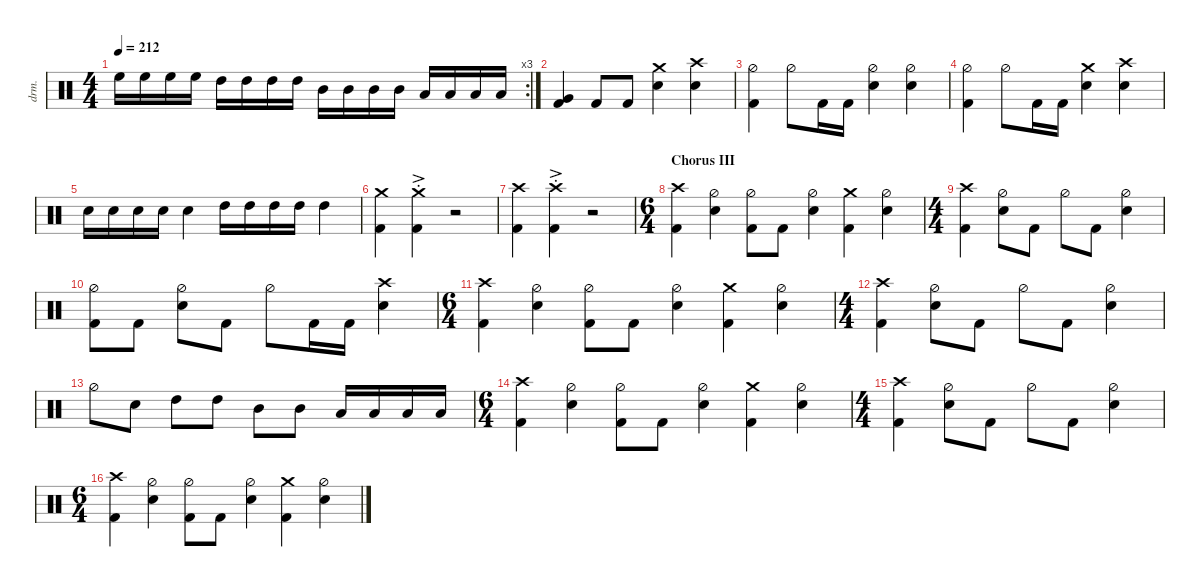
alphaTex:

\defaultSystemsLayout 4
\hideDynamics
\bracketExtendMode nobrackets
\track ("Drums" "drm.") {instrument percussion}
\staff {score}
\articulation defaults
\rc 3
\ts (4 4)
\tempo 212
\clef neutral
\ks c "High Floor Tom (hit)".16{dy fff} "High Floor Tom (hit)".16 "High Floor Tom (hit)".16 "High Floor Tom (hit)".16 "High Tom (hit)".16 "High Tom (hit)".16 "High Tom (hit)".16 "High Tom (hit)".16 "Mid Tom (hit)".16 "Mid Tom (hit)".16 "Mid Tom (hit)".16 "Mid Tom (hit)".16 "Low Tom (hit)".16 "Low Tom (hit)".16 "Low Tom (hit)".16 "Low Tom (hit)".16
|
("Kick (hit) 2" "Very Low Tom (hit)").4{dy f} "Kick (hit) 2".8 "Kick (hit) 2".8 ("Snare (hit) 2" "Crash medium (hit)").4 ("Snare (hit) 2" "Crash high (hit)").4 |
("Hi-Hat (half)" "Kick (hit) 2").4 "Hi-Hat (half)".8 "Kick (hit) 2".16 "Kick (hit) 2".16 ("Snare (hit) 2" "Hi-Hat (half)").4 ("Snare (hit) 2" "Hi-Hat (half)").4 |
("Hi-Hat (half)" "Kick (hit) 2").4 "Hi-Hat (half)".8 "Kick (hit) 2".16 "Kick (hit) 2".16 ("Snare (hit) 2" "Crash medium (hit)").4 ("Snare (hit) 2" "Crash high (hit)").4 |
"Snare (hit) 2".16 "Snare (hit) 2".16{dy mf} "Snare (hit) 2".16 "Snare (hit) 2".16 "Snare (hit) 2".4{dy f} "High Tom (hit)".16{dy ff} "High Tom (hit)".16{dy f} "High Tom (hit)".16 "High Tom (hit)".16 "High Tom (hit)".4{dy ff} |
("Kick (hit) 2" "Crash medium (hit)").4 ("Kick (hit) 2" "Crash medium (hit)"{ac st}).4 r.2 |
("Kick (hit) 2" "Crash high (hit)").4 ("Kick (hit) 2" "Crash high (hit)"{ac st}).4 r.2 |
\ts (6 4)
\beaming (8 2 2 2 6)
\section ("" "Chorus III")
("Crash high (hit)" "Kick (hit) 2").4{dy f} ("Hi-Hat (half)" "Snare (hit) 2").4 ("Hi-Hat (half)" "Kick (hit) 2").8 "Kick (hit) 2".8 ("Hi-Hat (half)" "Snare (hit) 2").4 ("Kick (hit) 2" "Crash medium (hit)").4 ("Hi-Hat (half)" "Snare (hit) 2").4 |
\ts (4 4)
\beaming (8 2 2 2 2)
("Crash high (hit)" "Kick (hit) 2").4 ("Hi-Hat (half)" "Snare (hit) 2").8 "Kick (hit) 2".8 "Hi-Hat (half)".8 "Kick (hit) 2".8 ("Hi-Hat (half)" "Snare (hit) 2").4 |
("Hi-Hat (half)" "Kick (hit) 2").8 "Kick (hit) 2".8 ("Hi-Hat (half)" "Snare (hit) 2").8 "Kick (hit) 2".8 "Hi-Hat (half)".8 "Kick (hit) 2".16 "Kick (hit) 2".16 ("Snare (hit) 2" "Crash high (hit)").4 |
\ts (6 4)
\beaming (8 2 2 2 6)
("Crash high (hit)" "Kick (hit) 2").4 ("Hi-Hat (half)" "Snare (hit) 2").4 ("Hi-Hat (half)" "Kick (hit) 2").8 "Kick (hit) 2".8 ("Hi-Hat (half)" "Snare (hit) 2").4 ("Kick (hit) 2" "Crash medium (hit)").4 ("Hi-Hat (half)" "Snare (hit) 2").4 |
\ts (4 4)
\beaming (8 2 2 2 2)
("Crash high (hit)" "Kick (hit) 2").4 ("Hi-Hat (half)" "Snare (hit) 2").8 "Kick (hit) 2".8 "Hi-Hat (half)".8 "Kick (hit) 2".8 ("Hi-Hat (half)" "Snare (hit) 2").4 |
"Hi-Hat (half)".8 "Snare (hit) 2".8 "High Tom (hit)".8{dy ff} "High Tom (hit)".8 "Mid Tom (hit)".8 "Mid Tom (hit)".8 "Low Tom (hit)".16 "Low Tom (hit)".16 "Low Tom (hit)".16 "Low Tom (hit)".16 |
\ts (6 4)
\beaming (8 2 2 2 6)
("Crash high (hit)" "Kick (hit) 2").4{dy f} ("Hi-Hat (half)" "Snare (hit) 2").4 ("Hi-Hat (half)" "Kick (hit) 2").8 "Kick (hit) 2".8 ("Hi-Hat (half)" "Snare (hit) 2").4 ("Kick (hit) 2" "Crash medium (hit)").4 ("Hi-Hat (half)" "Snare (hit) 2").4 |
\ts (4 4)
\beaming (8 2 2 2 2)
("Crash high (hit)" "Kick (hit) 2").4 ("Hi-Hat (half)" "Snare (hit) 2").8 "Kick (hit) 2".8 "Hi-Hat (half)".8 "Kick (hit) 2".8 ("Hi-Hat (half)" "Snare (hit) 2").4 |
\ts (6 4)
\beaming (8 2 2 2 6)
("Crash high (hit)" "Kick (hit) 2").4 ("Hi-Hat (half)" "Snare (hit) 2").4 ("Hi-Hat (half)" "Kick (hit) 2").8 "Kick (hit) 2".8 ("Hi-Hat (half)" "Snare (hit) 2").4 ("Kick (hit) 2" "Crash medium (hit)").4 ("Hi-Hat (half)" "Snare (hit) 2").4
